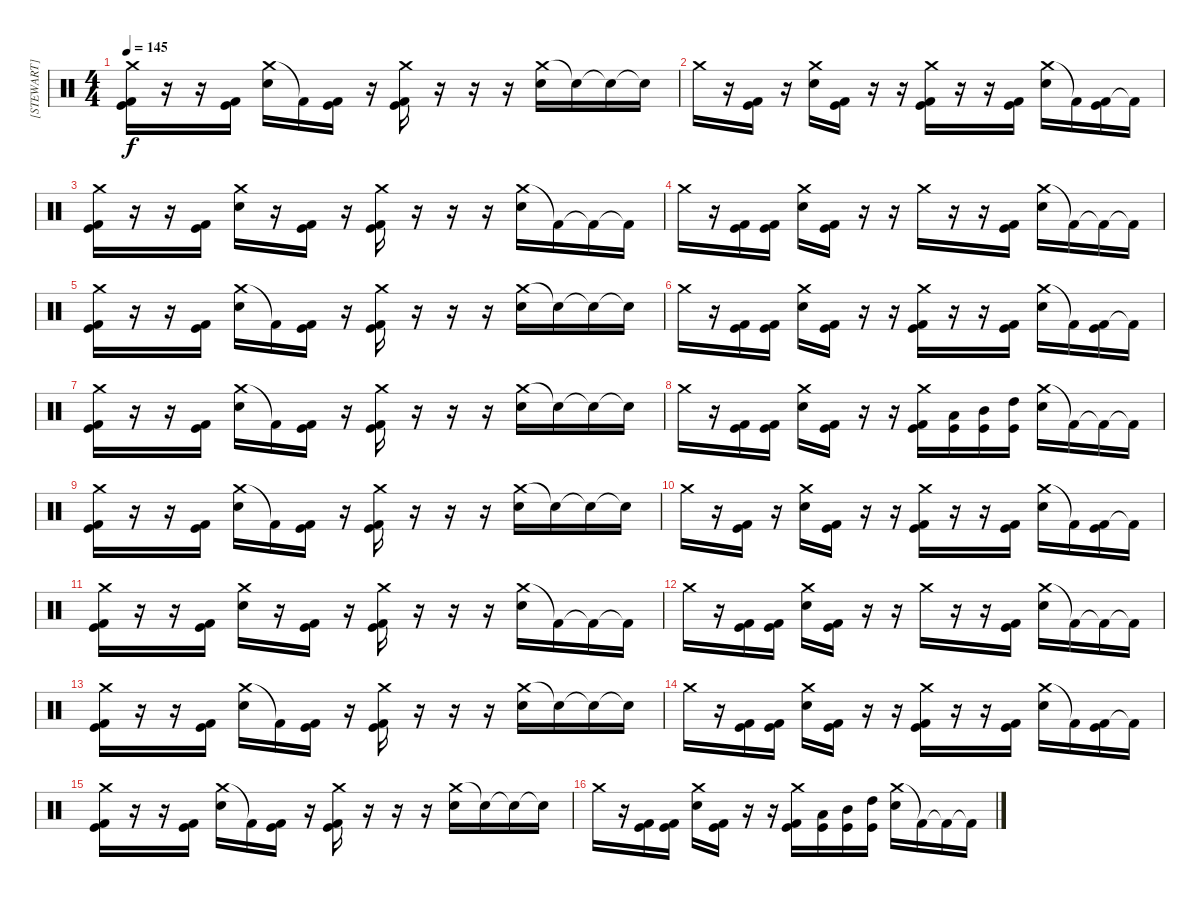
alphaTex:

\track ("[STEWART]" "[STEWART]") {instrument percussion}
\staff {score}
\articulation defaults
\ts (4 4)
\tempo 145
\clef neutral
\ks c
("Crash medium (hit)" "Kick (hit) 2" "Kick (hit)").16{dy f} r.16 r.16 ("Kick (hit) 2" "Kick (hit)").16 ("Crash medium (hit)" "Electric Snare (hit)").16 "Kick (hit) 2"{t}.16 ("Kick (hit) 2" "Kick (hit)").16 r.16 ("Crash medium (hit)" "Kick (hit) 2" "Kick (hit)").16 r.16 r.16 r.16 ("Crash medium (hit)" "Electric Snare (hit)").16 "Snare (hit)"{t}.16 "Snare (hit)"{t}.16 "Snare (hit)"{t}.16 |
"Crash medium (hit)".16 r.16 ("Kick (hit) 2" "Kick (hit)").16 r.16 ("Crash medium (hit)" "Electric Snare (hit)").16 ("Kick (hit) 2" "Kick (hit)").16 r.16 r.16 ("Crash medium (hit)" "Kick (hit) 2" "Kick (hit)").16 r.16 r.16 ("Kick (hit) 2" "Kick (hit)").16 ("Crash medium (hit)" "Electric Snare (hit)").16 "Kick (hit) 2"{t}.16 ("Kick (hit) 2" "Kick (hit)").16 "Kick (hit) 2"{t}.16 |
("Crash medium (hit)" "Kick (hit) 2" "Kick (hit)").16 r.16 r.16 ("Kick (hit) 2" "Kick (hit)").16 ("Crash medium (hit)" "Electric Snare (hit)").16 r.16 ("Kick (hit) 2" "Kick (hit)").16 r.16 ("Crash medium (hit)" "Kick (hit) 2" "Kick (hit)").16 r.16 r.16 r.16 ("Crash medium (hit)" "Electric Snare (hit)").16 "Kick (hit) 2"{t}.16 "Kick (hit) 2"{t}.16 "Kick (hit) 2"{t}.16 |
"Crash medium (hit)".16 r.16 ("Kick (hit) 2" "Kick (hit)").16 ("Kick (hit) 2" "Kick (hit)").16 ("Crash medium (hit)" "Electric Snare (hit)").16 ("Kick (hit) 2" "Kick (hit)").16 r.16 r.16 "Crash medium (hit)".16 r.16 r.16 ("Kick (hit) 2" "Kick (hit)").16 ("Crash medium (hit)" "Electric Snare (hit)").16 "Kick (hit) 2"{t}.16 "Kick (hit) 2"{t}.16 "Kick (hit) 2"{t}.16 |
("Crash medium (hit)" "Kick (hit) 2" "Kick (hit)").16 r.16 r.16 ("Kick (hit) 2" "Kick (hit)").16 ("Crash medium (hit)" "Electric Snare (hit)").16 "Kick (hit) 2"{t}.16 ("Kick (hit) 2" "Kick (hit)").16 r.16 ("Crash medium (hit)" "Kick (hit) 2" "Kick (hit)").16 r.16 r.16 r.16 ("Crash medium (hit)" "Electric Snare (hit)").16 "Snare (hit)"{t}.16 "Snare (hit)"{t}.16 "Snare (hit)"{t}.16 |
"Crash medium (hit)".16 r.16 ("Kick (hit) 2" "Kick (hit)").16 ("Kick (hit) 2" "Kick (hit)").16 ("Crash medium (hit)" "Electric Snare (hit)").16 ("Kick (hit) 2" "Kick (hit)").16 r.16 r.16 ("Crash medium (hit)" "Kick (hit) 2" "Kick (hit)").16 r.16 r.16 ("Kick (hit) 2" "Kick (hit)").16 ("Crash medium (hit)" "Electric Snare (hit)").16 "Kick (hit) 2"{t}.16 ("Kick (hit) 2" "Kick (hit)").16 "Kick (hit) 2"{t}.16 |
("Crash medium (hit)" "Kick (hit) 2" "Kick (hit)").16 r.16 r.16 ("Kick (hit) 2" "Kick (hit)").16 ("Crash medium (hit)" "Electric Snare (hit)").16 "Kick (hit) 2"{t}.16 ("Kick (hit) 2" "Kick (hit)").16 r.16 ("Crash medium (hit)" "Kick (hit) 2" "Kick (hit)").16 r.16 r.16 r.16 ("Crash medium (hit)" "Electric Snare (hit)").16 "Snare (hit)"{t}.16 "Snare (hit)"{t}.16 "Snare (hit)"{t}.16 |
"Crash medium (hit)".16 r.16 ("Kick (hit) 2" "Kick (hit)").16 ("Kick (hit) 2" "Kick (hit)").16 ("Crash medium (hit)" "Electric Snare (hit)").16 ("Kick (hit) 2" "Kick (hit)").16 r.16 r.16 ("Crash medium (hit)" "Kick (hit) 2" "Kick (hit)").16 ("Low Tom (hit)" "Kick (hit)").16 ("Mid Tom (hit)" "Kick (hit)").16 ("High Tom (hit)" "Kick (hit)").16 ("Crash medium (hit)" "Electric Snare (hit)").16 "Kick (hit) 2"{t}.16 "Kick (hit) 2"{t}.16 "Kick (hit) 2"{t}.16 |
("Crash medium (hit)" "Kick (hit) 2" "Kick (hit)").16 r.16 r.16 ("Kick (hit) 2" "Kick (hit)").16 ("Crash medium (hit)" "Electric Snare (hit)").16 "Kick (hit) 2"{t}.16 ("Kick (hit) 2" "Kick (hit)").16 r.16 ("Crash medium (hit)" "Kick (hit) 2" "Kick (hit)").16 r.16 r.16 r.16 ("Crash medium (hit)" "Electric Snare (hit)").16 "Snare (hit)"{t}.16 "Snare (hit)"{t}.16 "Snare (hit)"{t}.16 |
"Crash medium (hit)".16 r.16 ("Kick (hit) 2" "Kick (hit)").16 r.16 ("Crash medium (hit)" "Electric Snare (hit)").16 ("Kick (hit) 2" "Kick (hit)").16 r.16 r.16 ("Crash medium (hit)" "Kick (hit) 2" "Kick (hit)").16 r.16 r.16 ("Kick (hit) 2" "Kick (hit)").16 ("Crash medium (hit)" "Electric Snare (hit)").16 "Kick (hit) 2"{t}.16 ("Kick (hit) 2" "Kick (hit)").16 "Kick (hit) 2"{t}.16 |
("Crash medium (hit)" "Kick (hit) 2" "Kick (hit)").16 r.16 r.16 ("Kick (hit) 2" "Kick (hit)").16 ("Crash medium (hit)" "Electric Snare (hit)").16 r.16 ("Kick (hit) 2" "Kick (hit)").16 r.16 ("Crash medium (hit)" "Kick (hit) 2" "Kick (hit)").16 r.16 r.16 r.16 ("Crash medium (hit)" "Electric Snare (hit)").16 "Kick (hit) 2"{t}.16 "Kick (hit) 2"{t}.16 "Kick (hit) 2"{t}.16 |
"Crash medium (hit)".16 r.16 ("Kick (hit) 2" "Kick (hit)").16 ("Kick (hit) 2" "Kick (hit)").16 ("Crash medium (hit)" "Electric Snare (hit)").16 ("Kick (hit) 2" "Kick (hit)").16 r.16 r.16 "Crash medium (hit)".16 r.16 r.16 ("Kick (hit) 2" "Kick (hit)").16 ("Crash medium (hit)" "Electric Snare (hit)").16 "Kick (hit) 2"{t}.16 "Kick (hit) 2"{t}.16 "Kick (hit) 2"{t}.16 |
("Crash medium (hit)" "Kick (hit) 2" "Kick (hit)").16 r.16 r.16 ("Kick (hit) 2" "Kick (hit)").16 ("Crash medium (hit)" "Electric Snare (hit)").16 "Kick (hit) 2"{t}.16 ("Kick (hit) 2" "Kick (hit)").16 r.16 ("Crash medium (hit)" "Kick (hit) 2" "Kick (hit)").16 r.16 r.16 r.16 ("Crash medium (hit)" "Electric Snare (hit)").16 "Snare (hit)"{t}.16 "Snare (hit)"{t}.16 "Snare (hit)"{t}.16 |
"Crash medium (hit)".16 r.16 ("Kick (hit) 2" "Kick (hit)").16 ("Kick (hit) 2" "Kick (hit)").16 ("Crash medium (hit)" "Electric Snare (hit)").16 ("Kick (hit) 2" "Kick (hit)").16 r.16 r.16 ("Crash medium (hit)" "Kick (hit) 2" "Kick (hit)").16 r.16 r.16 ("Kick (hit) 2" "Kick (hit)").16 ("Crash medium (hit)" "Electric Snare (hit)").16 "Kick (hit) 2"{t}.16 ("Kick (hit) 2" "Kick (hit)").16 "Kick (hit) 2"{t}.16 |
("Crash medium (hit)" "Kick (hit) 2" "Kick (hit)").16 r.16 r.16 ("Kick (hit) 2" "Kick (hit)").16 ("Crash medium (hit)" "Electric Snare (hit)").16 "Kick (hit) 2"{t}.16 ("Kick (hit) 2" "Kick (hit)").16 r.16 ("Crash medium (hit)" "Kick (hit) 2" "Kick (hit)").16 r.16 r.16 r.16 ("Crash medium (hit)" "Electric Snare (hit)").16 "Snare (hit)"{t}.16 "Snare (hit)"{t}.16 "Snare (hit)"{t}.16 |
"Crash medium (hit)".16 r.16 ("Kick (hit) 2" "Kick (hit)").16 ("Kick (hit) 2" "Kick (hit)").16 ("Crash medium (hit)" "Electric Snare (hit)").16 ("Kick (hit) 2" "Kick (hit)").16 r.16 r.16 ("Crash medium (hit)" "Kick (hit) 2" "Kick (hit)").16 ("Low Tom (hit)" "Kick (hit)").16 ("Mid Tom (hit)" "Kick (hit)").16 ("High Tom (hit)" "Kick (hit)").16 ("Crash medium (hit)" "Electric Snare (hit)").16 "Kick (hit) 2"{t}.16 "Kick (hit) 2"{t}.16 "Kick (hit) 2"{t}.16
